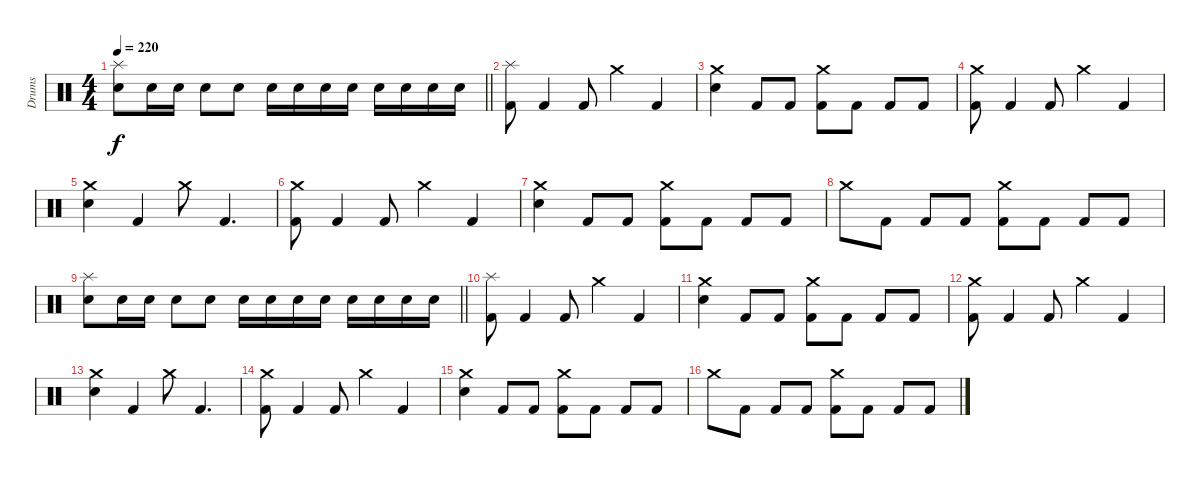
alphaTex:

\track ("Drums" "Drums") {instrument percussion}
\staff {score}
\articulation defaults
\ts (4 4)
\tempo 220
\clef neutral
\barLineRight lightlight
\ks c
("Splash (hit)" "Electric Snare (hit)").8{dy f} "Electric Snare (hit)".16 "Electric Snare (hit)".16 "Electric Snare (hit)".8 "Electric Snare (hit)".8 "Electric Snare (hit)".16 "Electric Snare (hit)".16 "Electric Snare (hit)".16 "Electric Snare (hit)".16 "Electric Snare (hit)".16 "Electric Snare (hit)".16 "Electric Snare (hit)".16 "Electric Snare (hit)".16 |
\section ("" "")
("Splash (hit)" "Kick (hit) 2").8 "Kick (hit) 2".4 "Kick (hit) 2".8 "Crash medium (hit)".4 "Kick (hit) 2".4 |
("Crash medium (hit)" "Electric Snare (hit)").4 "Kick (hit) 2".8 "Kick (hit) 2".8 ("Crash medium (hit)" "Kick (hit) 2").8 "Kick (hit) 2".8 "Kick (hit) 2".8 "Kick (hit) 2".8 |
("Crash medium (hit)" "Kick (hit) 2").8 "Kick (hit) 2".4 "Kick (hit) 2".8 "Crash medium (hit)".4 "Kick (hit) 2".4 |
("Crash medium (hit)" "Electric Snare (hit)").4 "Kick (hit) 2".4 "Crash medium (hit)".8 "Kick (hit) 2".4{d} |
("Crash medium (hit)" "Kick (hit) 2").8 "Kick (hit) 2".4 "Kick (hit) 2".8 "Crash medium (hit)".4 "Kick (hit) 2".4 |
("Crash medium (hit)" "Electric Snare (hit)").4 "Kick (hit) 2".8 "Kick (hit) 2".8 ("Crash medium (hit)" "Kick (hit) 2").8 "Kick (hit) 2".8 "Kick (hit) 2".8 "Kick (hit) 2".8 |
"Crash medium (hit)".8 "Kick (hit) 2".8 "Kick (hit) 2".8 "Kick (hit) 2".8 ("Crash medium (hit)" "Kick (hit) 2").8 "Kick (hit) 2".8 "Kick (hit) 2".8 "Kick (hit) 2".8 |
\barLineRight lightlight
("Splash (hit)" "Electric Snare (hit)").8 "Electric Snare (hit)".16 "Electric Snare (hit)".16 "Electric Snare (hit)".8 "Electric Snare (hit)".8 "Electric Snare (hit)".16 "Electric Snare (hit)".16 "Electric Snare (hit)".16 "Electric Snare (hit)".16 "Electric Snare (hit)".16 "Electric Snare (hit)".16 "Electric Snare (hit)".16 "Electric Snare (hit)".16 |
\section ("" "")
("Splash (hit)" "Kick (hit) 2").8 "Kick (hit) 2".4 "Kick (hit) 2".8 "Crash medium (hit)".4 "Kick (hit) 2".4 |
("Crash medium (hit)" "Electric Snare (hit)").4 "Kick (hit) 2".8 "Kick (hit) 2".8 ("Crash medium (hit)" "Kick (hit) 2").8 "Kick (hit) 2".8 "Kick (hit) 2".8 "Kick (hit) 2".8 |
("Crash medium (hit)" "Kick (hit) 2").8 "Kick (hit) 2".4 "Kick (hit) 2".8 "Crash medium (hit)".4 "Kick (hit) 2".4 |
("Crash medium (hit)" "Electric Snare (hit)").4 "Kick (hit) 2".4 "Crash medium (hit)".8 "Kick (hit) 2".4{d} |
("Crash medium (hit)" "Kick (hit) 2").8 "Kick (hit) 2".4 "Kick (hit) 2".8 "Crash medium (hit)".4 "Kick (hit) 2".4 |
("Crash medium (hit)" "Electric Snare (hit)").4 "Kick (hit) 2".8 "Kick (hit) 2".8 ("Crash medium (hit)" "Kick (hit) 2").8 "Kick (hit) 2".8 "Kick (hit) 2".8 "Kick (hit) 2".8 |
"Crash medium (hit)".8 "Kick (hit) 2".8 "Kick (hit) 2".8 "Kick (hit) 2".8 ("Crash medium (hit)" "Kick (hit) 2").8 "Kick (hit) 2".8 "Kick (hit) 2".8 "Kick (hit) 2".8
